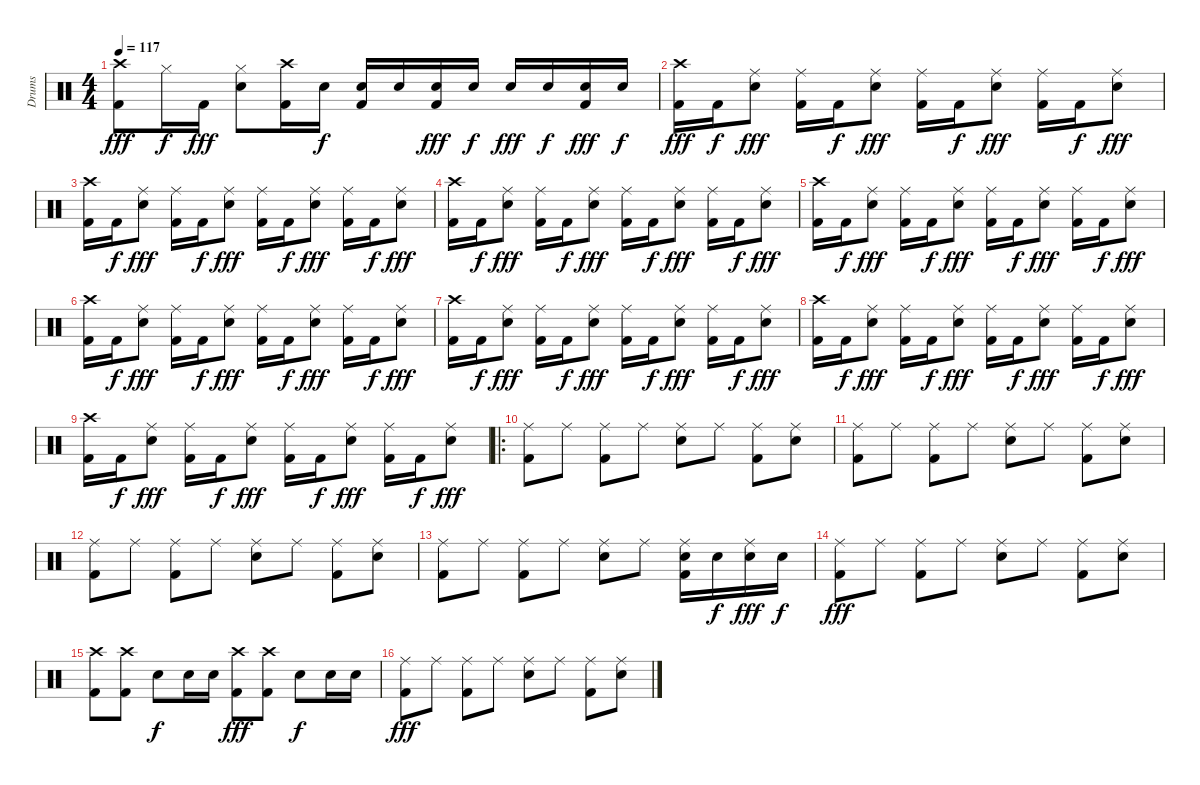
\track ("Drums" "Drums") {instrument percussion}
\staff {score}
\articulation defaults
\ts (4 4)
\tempo 117
\clef neutral
\ks c
("Crash high (hit)" "Kick (hit) 2").8{dy fff} "Hi-Hat (closed)".16{dy f} "Kick (hit) 2".16{dy fff} ("Hi-Hat (closed)" "Snare (hit) 2").8 ("Crash high (hit)" "Kick (hit) 2").16 "Snare (hit) 2".16{dy f} ("Snare (hit) 2" "Kick (hit) 2").16 "Snare (hit) 2".16 ("Snare (hit) 2" "Kick (hit) 2").16{dy fff} "Snare (hit) 2".16{dy f} "Snare (hit) 2".16{dy fff} "Snare (hit) 2".16{dy f} ("Snare (hit) 2" "Kick (hit) 2").16{dy fff} "Snare (hit) 2".16{dy f} |
("Crash high (hit)" "Kick (hit) 2").16{dy fff} "Kick (hit) 2".16{dy f} ("Ride (middle)" "Snare (hit) 2").8{dy fff} ("Ride (middle)" "Kick (hit) 2").16 "Kick (hit) 2".16{dy f} ("Ride (middle)" "Snare (hit) 2").8{dy fff} ("Ride (middle)" "Kick (hit) 2").16 "Kick (hit) 2".16{dy f} ("Ride (middle)" "Snare (hit) 2").8{dy fff} ("Ride (middle)" "Kick (hit) 2").16 "Kick (hit) 2".16{dy f} ("Ride (middle)" "Snare (hit) 2").8{dy fff} |
("Crash high (hit)" "Kick (hit) 2").16 "Kick (hit) 2".16{dy f} ("Ride (middle)" "Snare (hit) 2").8{dy fff} ("Ride (middle)" "Kick (hit) 2").16 "Kick (hit) 2".16{dy f} ("Ride (middle)" "Snare (hit) 2").8{dy fff} ("Ride (middle)" "Kick (hit) 2").16 "Kick (hit) 2".16{dy f} ("Ride (middle)" "Snare (hit) 2").8{dy fff} ("Ride (middle)" "Kick (hit) 2").16 "Kick (hit) 2".16{dy f} ("Ride (middle)" "Snare (hit) 2").8{dy fff} |
("Crash high (hit)" "Kick (hit) 2").16 "Kick (hit) 2".16{dy f} ("Ride (middle)" "Snare (hit) 2").8{dy fff} ("Ride (middle)" "Kick (hit) 2").16 "Kick (hit) 2".16{dy f} ("Ride (middle)" "Snare (hit) 2").8{dy fff} ("Ride (middle)" "Kick (hit) 2").16 "Kick (hit) 2".16{dy f} ("Ride (middle)" "Snare (hit) 2").8{dy fff} ("Ride (middle)" "Kick (hit) 2").16 "Kick (hit) 2".16{dy f} ("Ride (middle)" "Snare (hit) 2").8{dy fff} |
("Crash high (hit)" "Kick (hit) 2").16 "Kick (hit) 2".16{dy f} ("Ride (middle)" "Snare (hit) 2").8{dy fff} ("Ride (middle)" "Kick (hit) 2").16 "Kick (hit) 2".16{dy f} ("Ride (middle)" "Snare (hit) 2").8{dy fff} ("Ride (middle)" "Kick (hit) 2").16 "Kick (hit) 2".16{dy f} ("Ride (middle)" "Snare (hit) 2").8{dy fff} ("Ride (middle)" "Kick (hit) 2").16 "Kick (hit) 2".16{dy f} ("Ride (middle)" "Snare (hit) 2").8{dy fff} |
("Crash high (hit)" "Kick (hit) 2").16 "Kick (hit) 2".16{dy f} ("Ride (middle)" "Snare (hit) 2").8{dy fff} ("Ride (middle)" "Kick (hit) 2").16 "Kick (hit) 2".16{dy f} ("Ride (middle)" "Snare (hit) 2").8{dy fff} ("Ride (middle)" "Kick (hit) 2").16 "Kick (hit) 2".16{dy f} ("Ride (middle)" "Snare (hit) 2").8{dy fff} ("Ride (middle)" "Kick (hit) 2").16 "Kick (hit) 2".16{dy f} ("Ride (middle)" "Snare (hit) 2").8{dy fff} |
("Crash high (hit)" "Kick (hit) 2").16 "Kick (hit) 2".16{dy f} ("Ride (middle)" "Snare (hit) 2").8{dy fff} ("Ride (middle)" "Kick (hit) 2").16 "Kick (hit) 2".16{dy f} ("Ride (middle)" "Snare (hit) 2").8{dy fff} ("Ride (middle)" "Kick (hit) 2").16 "Kick (hit) 2".16{dy f} ("Ride (middle)" "Snare (hit) 2").8{dy fff} ("Ride (middle)" "Kick (hit) 2").16 "Kick (hit) 2".16{dy f} ("Ride (middle)" "Snare (hit) 2").8{dy fff} |
("Crash high (hit)" "Kick (hit) 2").16 "Kick (hit) 2".16{dy f} ("Ride (middle)" "Snare (hit) 2").8{dy fff} ("Ride (middle)" "Kick (hit) 2").16 "Kick (hit) 2".16{dy f} ("Ride (middle)" "Snare (hit) 2").8{dy fff} ("Ride (middle)" "Kick (hit) 2").16 "Kick (hit) 2".16{dy f} ("Ride (middle)" "Snare (hit) 2").8{dy fff} ("Ride (middle)" "Kick (hit) 2").16 "Kick (hit) 2".16{dy f} ("Ride (middle)" "Snare (hit) 2").8{dy fff} |
("Crash high (hit)" "Kick (hit) 2").16 "Kick (hit) 2".16{dy f} ("Ride (middle)" "Snare (hit) 2").8{dy fff} ("Ride (middle)" "Kick (hit) 2").16 "Kick (hit) 2".16{dy f} ("Ride (middle)" "Snare (hit) 2").8{dy fff} ("Ride (middle)" "Kick (hit) 2").16 "Kick (hit) 2".16{dy f} ("Ride (middle)" "Snare (hit) 2").8{dy fff} ("Ride (middle)" "Kick (hit) 2").16 "Kick (hit) 2".16{dy f} ("Ride (middle)" "Snare (hit) 2").8{dy fff} |
\ro
("Ride (middle)" "Kick (hit) 2").8 "Ride (middle)".8 ("Ride (middle)" "Kick (hit) 2").8 "Ride (middle)".8 ("Ride (middle)" "Snare (hit) 2").8 "Ride (middle)".8 ("Ride (middle)" "Kick (hit) 2").8 ("Ride (middle)" "Snare (hit) 2").8 |
("Ride (middle)" "Kick (hit) 2").8 "Ride (middle)".8 ("Ride (middle)" "Kick (hit) 2").8 "Ride (middle)".8 ("Ride (middle)" "Snare (hit) 2").8 "Ride (middle)".8 ("Ride (middle)" "Kick (hit) 2").8 ("Ride (middle)" "Snare (hit) 2").8 |
("Ride (middle)" "Kick (hit) 2").8 "Ride (middle)".8 ("Ride (middle)" "Kick (hit) 2").8 "Ride (middle)".8 ("Ride (middle)" "Snare (hit) 2").8 "Ride (middle)".8 ("Ride (middle)" "Kick (hit) 2").8 ("Ride (middle)" "Snare (hit) 2").8 |
("Ride (middle)" "Kick (hit) 2").8 "Ride (middle)".8 ("Ride (middle)" "Kick (hit) 2").8 "Ride (middle)".8 ("Ride (middle)" "Snare (hit) 2").8 "Ride (middle)".8 ("Ride (middle)" "Snare (hit) 2" "Kick (hit) 2").16 "Snare (hit) 2".16{dy f} ("Ride (middle)" "Snare (hit) 2").16{dy fff} "Snare (hit) 2".16{dy f} |
("Ride (middle)" "Kick (hit) 2").8{dy fff} "Ride (middle)".8 ("Ride (middle)" "Kick (hit) 2").8 "Ride (middle)".8 ("Ride (middle)" "Snare (hit) 2").8 "Ride (middle)".8 ("Ride (middle)" "Kick (hit) 2").8 ("Ride (middle)" "Snare (hit) 2").8 |
("Crash high (hit)" "Kick (hit) 2").8 ("Crash high (hit)" "Kick (hit) 2").8 "Snare (hit) 2".8{dy f} "Snare (hit) 2".16 "Snare (hit) 2".16 ("Crash high (hit)" "Kick (hit) 2").8{dy fff} ("Crash high (hit)" "Kick (hit) 2").8 "Snare (hit) 2".8{dy f} "Snare (hit) 2".16 "Snare (hit) 2".16 |
("Ride (middle)" "Kick (hit) 2").8{dy fff} "Ride (middle)".8 ("Ride (middle)" "Kick (hit) 2").8 "Ride (middle)".8 ("Ride (middle)" "Snare (hit) 2").8 "Ride (middle)".8 ("Ride (middle)" "Kick (hit) 2").8 ("Ride (middle)" "Snare (hit) 2").8
